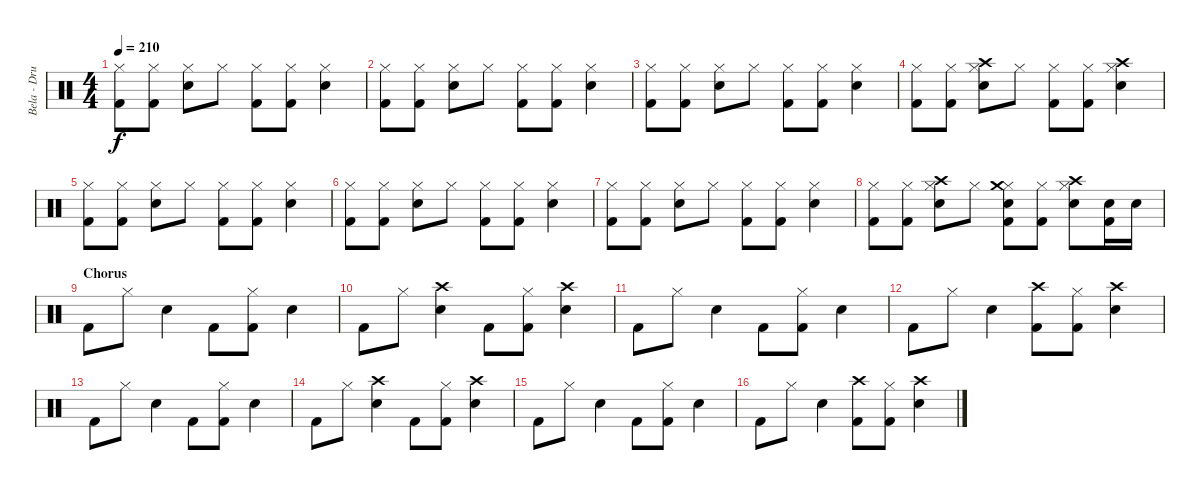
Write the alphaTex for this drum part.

\track ("Bela - Drums" "Bela - Dru") {instrument percussion}
\staff {score}
\articulation defaults
\ts (4 4)
\tempo 210
\clef neutral
\ks c
("Hi-Hat (closed)" "Kick (hit) 2").8{dy f} ("Hi-Hat (closed)" "Kick (hit) 2").8 ("Hi-Hat (closed)" "Electric Snare (hit)").8 "Hi-Hat (closed)".8 ("Hi-Hat (closed)" "Kick (hit) 2").8 ("Hi-Hat (closed)" "Kick (hit) 2").8 ("Hi-Hat (closed)" "Electric Snare (hit)").4 |
("Hi-Hat (closed)" "Kick (hit) 2").8 ("Hi-Hat (closed)" "Kick (hit) 2").8 ("Hi-Hat (closed)" "Electric Snare (hit)").8 "Hi-Hat (closed)".8 ("Hi-Hat (closed)" "Kick (hit) 2").8 ("Hi-Hat (closed)" "Kick (hit) 2").8 ("Hi-Hat (closed)" "Electric Snare (hit)").4 |
("Hi-Hat (closed)" "Kick (hit) 2").8 ("Hi-Hat (closed)" "Kick (hit) 2").8 ("Hi-Hat (closed)" "Electric Snare (hit)").8 "Hi-Hat (closed)".8 ("Hi-Hat (closed)" "Kick (hit) 2").8 ("Hi-Hat (closed)" "Kick (hit) 2").8 ("Hi-Hat (closed)" "Electric Snare (hit)").4 |
("Hi-Hat (closed)" "Kick (hit) 2").8 ("Hi-Hat (closed)" "Kick (hit) 2").8 ("Hi-Hat (closed)" "Crash high (hit)" "Electric Snare (hit)").8 "Hi-Hat (closed)".8 ("Hi-Hat (closed)" "Kick (hit) 2").8 ("Hi-Hat (closed)" "Kick (hit) 2").8 ("Hi-Hat (closed)" "Crash high (hit)" "Electric Snare (hit)").4 |
("Hi-Hat (closed)" "Kick (hit) 2").8 ("Hi-Hat (closed)" "Kick (hit) 2").8 ("Hi-Hat (closed)" "Electric Snare (hit)").8 "Hi-Hat (closed)".8 ("Hi-Hat (closed)" "Kick (hit) 2").8 ("Hi-Hat (closed)" "Kick (hit) 2").8 ("Hi-Hat (closed)" "Electric Snare (hit)").4 |
("Hi-Hat (closed)" "Kick (hit) 2").8 ("Hi-Hat (closed)" "Kick (hit) 2").8 ("Hi-Hat (closed)" "Electric Snare (hit)").8 "Hi-Hat (closed)".8 ("Hi-Hat (closed)" "Kick (hit) 2").8 ("Hi-Hat (closed)" "Kick (hit) 2").8 ("Hi-Hat (closed)" "Electric Snare (hit)").4 |
("Hi-Hat (closed)" "Kick (hit) 2").8 ("Hi-Hat (closed)" "Kick (hit) 2").8 ("Hi-Hat (closed)" "Electric Snare (hit)").8 "Hi-Hat (closed)".8 ("Hi-Hat (closed)" "Kick (hit) 2").8 ("Hi-Hat (closed)" "Kick (hit) 2").8 ("Hi-Hat (closed)" "Electric Snare (hit)").4 |
("Hi-Hat (closed)" "Kick (hit) 2").8 ("Hi-Hat (closed)" "Kick (hit) 2").8 ("Hi-Hat (closed)" "Crash high (hit)" "Electric Snare (hit)").8 "Hi-Hat (closed)".8 ("Hi-Hat (closed)" "Crash medium (hit)" "Electric Snare (hit)" "Kick (hit) 2").8 ("Hi-Hat (closed)" "Kick (hit) 2").8 ("Hi-Hat (closed)" "Crash high (hit)" "Electric Snare (hit)").8 ("Electric Snare (hit)" "Kick (hit) 2").16 "Electric Snare (hit)".16 |
\section ("" "Chorus")
"Kick (hit) 2".8 "Hi-Hat (closed)".8 "Electric Snare (hit)".4 "Kick (hit) 2".8 ("Hi-Hat (closed)" "Kick (hit) 2").8 "Electric Snare (hit)".4 |
"Kick (hit) 2".8 "Hi-Hat (closed)".8 ("Crash high (hit)" "Electric Snare (hit)").4 "Kick (hit) 2".8 ("Hi-Hat (closed)" "Kick (hit) 2").8 ("Crash high (hit)" "Electric Snare (hit)").4 |
"Kick (hit) 2".8 "Hi-Hat (closed)".8 "Electric Snare (hit)".4 "Kick (hit) 2".8 ("Hi-Hat (closed)" "Kick (hit) 2").8 "Electric Snare (hit)".4 |
"Kick (hit) 2".8 "Hi-Hat (closed)".8 "Electric Snare (hit)".4 ("Crash high (hit)" "Kick (hit) 2").8 ("Hi-Hat (closed)" "Kick (hit) 2").8 ("Crash high (hit)" "Electric Snare (hit)").4 |
"Kick (hit) 2".8 "Hi-Hat (closed)".8 "Electric Snare (hit)".4 "Kick (hit) 2".8 ("Hi-Hat (closed)" "Kick (hit) 2").8 "Electric Snare (hit)".4 |
"Kick (hit) 2".8 "Hi-Hat (closed)".8 ("Crash high (hit)" "Electric Snare (hit)").4 "Kick (hit) 2".8 ("Hi-Hat (closed)" "Kick (hit) 2").8 ("Crash high (hit)" "Electric Snare (hit)").4 |
"Kick (hit) 2".8 "Hi-Hat (closed)".8 "Electric Snare (hit)".4 "Kick (hit) 2".8 ("Hi-Hat (closed)" "Kick (hit) 2").8 "Electric Snare (hit)".4 |
"Kick (hit) 2".8 "Hi-Hat (closed)".8 "Electric Snare (hit)".4 ("Crash high (hit)" "Kick (hit) 2").8 ("Hi-Hat (closed)" "Kick (hit) 2").8 ("Crash high (hit)" "Electric Snare (hit)").4
